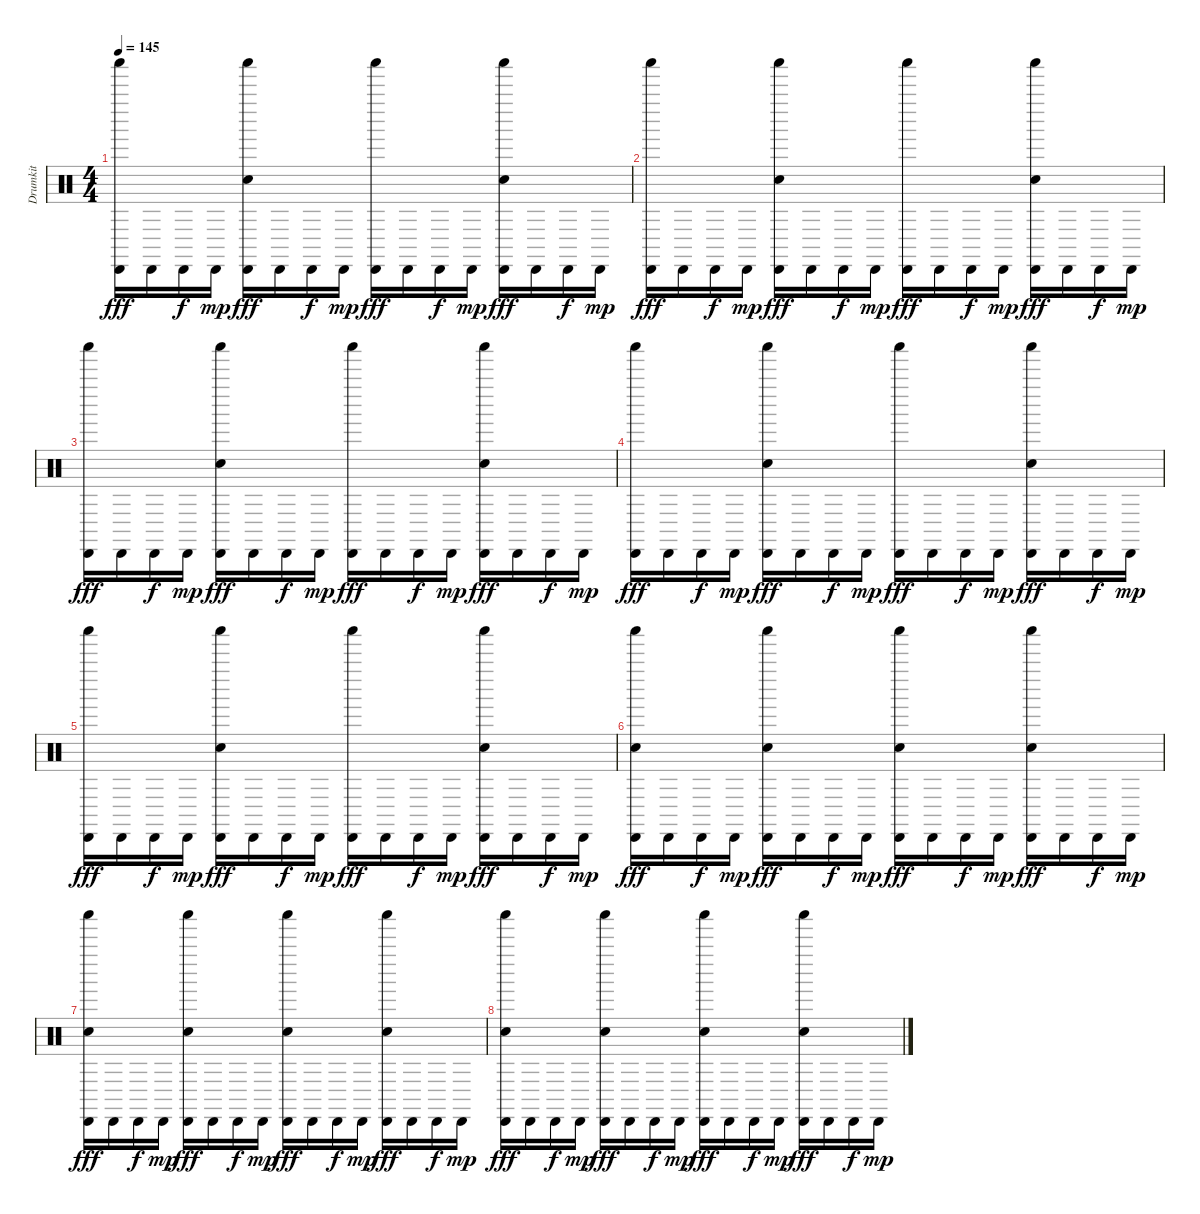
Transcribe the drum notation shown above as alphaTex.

\track ("Drumkit" "Drumkit") {instrument percussion}
\staff {score}
\articulation defaults
\ts (4 4)
\tempo 145
\clef neutral
\ks c
("Shaker (hit)" "Cabasa (hit)").16{dy fff} "Cabasa (hit)".16 "Cabasa (hit)".16{dy f} "Cabasa (hit)".16{dy mp} ("Shaker (hit)" "Snare (hit) 2" "Cabasa (hit)").16{dy fff} "Cabasa (hit)".16 "Cabasa (hit)".16{dy f} "Cabasa (hit)".16{dy mp} ("Shaker (hit)" "Cabasa (hit)").16{dy fff} "Cabasa (hit)".16 "Cabasa (hit)".16{dy f} "Cabasa (hit)".16{dy mp} ("Shaker (hit)" "Snare (hit) 2" "Cabasa (hit)").16{dy fff} "Cabasa (hit)".16 "Cabasa (hit)".16{dy f} "Cabasa (hit)".16{dy mp} |
("Shaker (hit)" "Cabasa (hit)").16{dy fff} "Cabasa (hit)".16 "Cabasa (hit)".16{dy f} "Cabasa (hit)".16{dy mp} ("Shaker (hit)" "Snare (hit) 2" "Cabasa (hit)").16{dy fff} "Cabasa (hit)".16 "Cabasa (hit)".16{dy f} "Cabasa (hit)".16{dy mp} ("Shaker (hit)" "Cabasa (hit)").16{dy fff} "Cabasa (hit)".16 "Cabasa (hit)".16{dy f} "Cabasa (hit)".16{dy mp} ("Shaker (hit)" "Snare (hit) 2" "Cabasa (hit)").16{dy fff} "Cabasa (hit)".16 "Cabasa (hit)".16{dy f} "Cabasa (hit)".16{dy mp} |
("Shaker (hit)" "Cabasa (hit)").16{dy fff} "Cabasa (hit)".16 "Cabasa (hit)".16{dy f} "Cabasa (hit)".16{dy mp} ("Shaker (hit)" "Snare (hit) 2" "Cabasa (hit)").16{dy fff} "Cabasa (hit)".16 "Cabasa (hit)".16{dy f} "Cabasa (hit)".16{dy mp} ("Shaker (hit)" "Cabasa (hit)").16{dy fff} "Cabasa (hit)".16 "Cabasa (hit)".16{dy f} "Cabasa (hit)".16{dy mp} ("Shaker (hit)" "Snare (hit) 2" "Cabasa (hit)").16{dy fff} "Cabasa (hit)".16 "Cabasa (hit)".16{dy f} "Cabasa (hit)".16{dy mp} |
("Shaker (hit)" "Cabasa (hit)").16{dy fff} "Cabasa (hit)".16 "Cabasa (hit)".16{dy f} "Cabasa (hit)".16{dy mp} ("Shaker (hit)" "Snare (hit) 2" "Cabasa (hit)").16{dy fff} "Cabasa (hit)".16 "Cabasa (hit)".16{dy f} "Cabasa (hit)".16{dy mp} ("Shaker (hit)" "Cabasa (hit)").16{dy fff} "Cabasa (hit)".16 "Cabasa (hit)".16{dy f} "Cabasa (hit)".16{dy mp} ("Shaker (hit)" "Snare (hit) 2" "Cabasa (hit)").16{dy fff} "Cabasa (hit)".16 "Cabasa (hit)".16{dy f} "Cabasa (hit)".16{dy mp} |
("Shaker (hit)" "Cabasa (hit)").16{dy fff} "Cabasa (hit)".16 "Cabasa (hit)".16{dy f} "Cabasa (hit)".16{dy mp} ("Shaker (hit)" "Snare (hit) 2" "Cabasa (hit)").16{dy fff} "Cabasa (hit)".16 "Cabasa (hit)".16{dy f} "Cabasa (hit)".16{dy mp} ("Shaker (hit)" "Cabasa (hit)").16{dy fff} "Cabasa (hit)".16 "Cabasa (hit)".16{dy f} "Cabasa (hit)".16{dy mp} ("Shaker (hit)" "Snare (hit) 2" "Cabasa (hit)").16{dy fff} "Cabasa (hit)".16 "Cabasa (hit)".16{dy f} "Cabasa (hit)".16{dy mp} |
("Shaker (hit)" "Snare (hit) 2" "Cabasa (hit)").16{dy fff} "Cabasa (hit)".16 "Cabasa (hit)".16{dy f} "Cabasa (hit)".16{dy mp} ("Shaker (hit)" "Snare (hit) 2" "Cabasa (hit)").16{dy fff} "Cabasa (hit)".16 "Cabasa (hit)".16{dy f} "Cabasa (hit)".16{dy mp} ("Shaker (hit)" "Snare (hit) 2" "Cabasa (hit)").16{dy fff} "Cabasa (hit)".16 "Cabasa (hit)".16{dy f} "Cabasa (hit)".16{dy mp} ("Shaker (hit)" "Snare (hit) 2" "Cabasa (hit)").16{dy fff} "Cabasa (hit)".16 "Cabasa (hit)".16{dy f} "Cabasa (hit)".16{dy mp} |
("Shaker (hit)" "Snare (hit) 2" "Cabasa (hit)").16{dy fff} "Cabasa (hit)".16 "Cabasa (hit)".16{dy f} "Cabasa (hit)".16{dy mp} ("Shaker (hit)" "Snare (hit) 2" "Cabasa (hit)").16{dy fff} "Cabasa (hit)".16 "Cabasa (hit)".16{dy f} "Cabasa (hit)".16{dy mp} ("Shaker (hit)" "Snare (hit) 2" "Cabasa (hit)").16{dy fff} "Cabasa (hit)".16 "Cabasa (hit)".16{dy f} "Cabasa (hit)".16{dy mp} ("Shaker (hit)" "Snare (hit) 2" "Cabasa (hit)").16{dy fff} "Cabasa (hit)".16 "Cabasa (hit)".16{dy f} "Cabasa (hit)".16{dy mp} |
("Shaker (hit)" "Snare (hit) 2" "Cabasa (hit)").16{dy fff} "Cabasa (hit)".16 "Cabasa (hit)".16{dy f} "Cabasa (hit)".16{dy mp} ("Shaker (hit)" "Snare (hit) 2" "Cabasa (hit)").16{dy fff} "Cabasa (hit)".16 "Cabasa (hit)".16{dy f} "Cabasa (hit)".16{dy mp} ("Shaker (hit)" "Snare (hit) 2" "Cabasa (hit)").16{dy fff} "Cabasa (hit)".16 "Cabasa (hit)".16{dy f} "Cabasa (hit)".16{dy mp} ("Shaker (hit)" "Snare (hit) 2" "Cabasa (hit)").16{dy fff} "Cabasa (hit)".16 "Cabasa (hit)".16{dy f} "Cabasa (hit)".16{dy mp}
